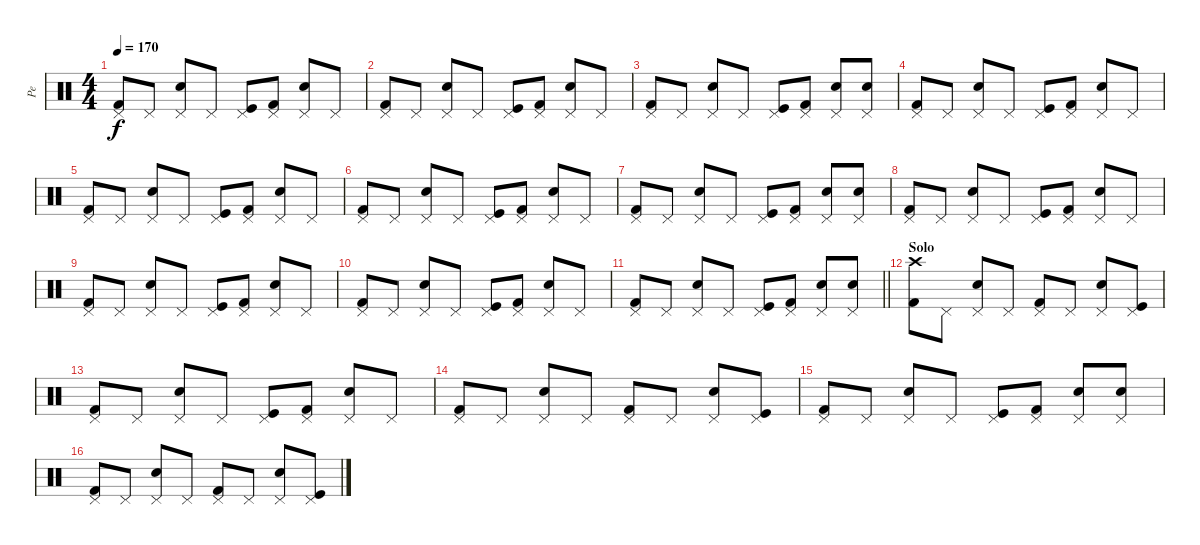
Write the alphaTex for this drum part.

\track ("Pe" "Pe") {instrument percussion}
\staff {score}
\articulation defaults
\ts (4 4)
\tempo 170
\clef neutral
\ks c
("Kick (hit) 2" "Pedal Hi-Hat (hit)").8{dy f} "Pedal Hi-Hat (hit)".8 ("Electric Snare (hit)" "Pedal Hi-Hat (hit)").8 "Pedal Hi-Hat (hit)".8 ("Kick (hit)" "Pedal Hi-Hat (hit)").8 ("Kick (hit) 2" "Pedal Hi-Hat (hit)").8 ("Electric Snare (hit)" "Pedal Hi-Hat (hit)").8 "Pedal Hi-Hat (hit)".8 |
("Kick (hit) 2" "Pedal Hi-Hat (hit)").8 "Pedal Hi-Hat (hit)".8 ("Electric Snare (hit)" "Pedal Hi-Hat (hit)").8 "Pedal Hi-Hat (hit)".8 ("Kick (hit)" "Pedal Hi-Hat (hit)").8 ("Kick (hit) 2" "Pedal Hi-Hat (hit)").8 ("Electric Snare (hit)" "Pedal Hi-Hat (hit)").8 "Pedal Hi-Hat (hit)".8 |
("Kick (hit) 2" "Pedal Hi-Hat (hit)").8 "Pedal Hi-Hat (hit)".8 ("Electric Snare (hit)" "Pedal Hi-Hat (hit)").8 "Pedal Hi-Hat (hit)".8 ("Kick (hit)" "Pedal Hi-Hat (hit)").8 ("Kick (hit) 2" "Pedal Hi-Hat (hit)").8 ("Electric Snare (hit)" "Pedal Hi-Hat (hit)").8 ("Electric Snare (hit)" "Pedal Hi-Hat (hit)").8 |
("Kick (hit) 2" "Pedal Hi-Hat (hit)").8 "Pedal Hi-Hat (hit)".8 ("Electric Snare (hit)" "Pedal Hi-Hat (hit)").8 "Pedal Hi-Hat (hit)".8 ("Kick (hit)" "Pedal Hi-Hat (hit)").8 ("Kick (hit) 2" "Pedal Hi-Hat (hit)").8 ("Electric Snare (hit)" "Pedal Hi-Hat (hit)").8 "Pedal Hi-Hat (hit)".8 |
("Kick (hit) 2" "Pedal Hi-Hat (hit)").8 "Pedal Hi-Hat (hit)".8 ("Electric Snare (hit)" "Pedal Hi-Hat (hit)").8 "Pedal Hi-Hat (hit)".8 ("Kick (hit)" "Pedal Hi-Hat (hit)").8 ("Kick (hit) 2" "Pedal Hi-Hat (hit)").8 ("Electric Snare (hit)" "Pedal Hi-Hat (hit)").8 "Pedal Hi-Hat (hit)".8 |
("Kick (hit) 2" "Pedal Hi-Hat (hit)").8 "Pedal Hi-Hat (hit)".8 ("Electric Snare (hit)" "Pedal Hi-Hat (hit)").8 "Pedal Hi-Hat (hit)".8 ("Kick (hit)" "Pedal Hi-Hat (hit)").8 ("Kick (hit) 2" "Pedal Hi-Hat (hit)").8 ("Electric Snare (hit)" "Pedal Hi-Hat (hit)").8 "Pedal Hi-Hat (hit)".8 |
("Kick (hit) 2" "Pedal Hi-Hat (hit)").8 "Pedal Hi-Hat (hit)".8 ("Electric Snare (hit)" "Pedal Hi-Hat (hit)").8 "Pedal Hi-Hat (hit)".8 ("Kick (hit)" "Pedal Hi-Hat (hit)").8 ("Kick (hit) 2" "Pedal Hi-Hat (hit)").8 ("Electric Snare (hit)" "Pedal Hi-Hat (hit)").8 ("Electric Snare (hit)" "Pedal Hi-Hat (hit)").8 |
("Kick (hit) 2" "Pedal Hi-Hat (hit)").8 "Pedal Hi-Hat (hit)".8 ("Electric Snare (hit)" "Pedal Hi-Hat (hit)").8 "Pedal Hi-Hat (hit)".8 ("Kick (hit)" "Pedal Hi-Hat (hit)").8 ("Kick (hit) 2" "Pedal Hi-Hat (hit)").8 ("Electric Snare (hit)" "Pedal Hi-Hat (hit)").8 "Pedal Hi-Hat (hit)".8 |
("Kick (hit) 2" "Pedal Hi-Hat (hit)").8 "Pedal Hi-Hat (hit)".8 ("Electric Snare (hit)" "Pedal Hi-Hat (hit)").8 "Pedal Hi-Hat (hit)".8 ("Kick (hit)" "Pedal Hi-Hat (hit)").8 ("Kick (hit) 2" "Pedal Hi-Hat (hit)").8 ("Electric Snare (hit)" "Pedal Hi-Hat (hit)").8 "Pedal Hi-Hat (hit)".8 |
("Kick (hit) 2" "Pedal Hi-Hat (hit)").8 "Pedal Hi-Hat (hit)".8 ("Electric Snare (hit)" "Pedal Hi-Hat (hit)").8 "Pedal Hi-Hat (hit)".8 ("Kick (hit)" "Pedal Hi-Hat (hit)").8 ("Kick (hit) 2" "Pedal Hi-Hat (hit)").8 ("Electric Snare (hit)" "Pedal Hi-Hat (hit)").8 "Pedal Hi-Hat (hit)".8 |
\barLineRight lightlight
("Kick (hit) 2" "Pedal Hi-Hat (hit)").8 "Pedal Hi-Hat (hit)".8 ("Electric Snare (hit)" "Pedal Hi-Hat (hit)").8 "Pedal Hi-Hat (hit)".8 ("Kick (hit)" "Pedal Hi-Hat (hit)").8 ("Kick (hit) 2" "Pedal Hi-Hat (hit)").8 ("Electric Snare (hit)" "Pedal Hi-Hat (hit)").8 ("Electric Snare (hit)" "Pedal Hi-Hat (hit)").8 |
\section ("" "Solo")
("Kick (hit) 2" "Crash high (hit)").8 "Pedal Hi-Hat (hit)".8 ("Electric Snare (hit)" "Pedal Hi-Hat (hit)").8 "Pedal Hi-Hat (hit)".8 ("Kick (hit) 2" "Pedal Hi-Hat (hit)").8 "Pedal Hi-Hat (hit)".8 ("Electric Snare (hit)" "Pedal Hi-Hat (hit)").8 ("Kick (hit)" "Pedal Hi-Hat (hit)").8 |
("Kick (hit) 2" "Pedal Hi-Hat (hit)").8 "Pedal Hi-Hat (hit)".8 ("Electric Snare (hit)" "Pedal Hi-Hat (hit)").8 "Pedal Hi-Hat (hit)".8 ("Kick (hit)" "Pedal Hi-Hat (hit)").8 ("Kick (hit) 2" "Pedal Hi-Hat (hit)").8 ("Electric Snare (hit)" "Pedal Hi-Hat (hit)").8 "Pedal Hi-Hat (hit)".8 |
("Kick (hit) 2" "Pedal Hi-Hat (hit)").8 "Pedal Hi-Hat (hit)".8 ("Electric Snare (hit)" "Pedal Hi-Hat (hit)").8 "Pedal Hi-Hat (hit)".8 ("Kick (hit) 2" "Pedal Hi-Hat (hit)").8 "Pedal Hi-Hat (hit)".8 ("Electric Snare (hit)" "Pedal Hi-Hat (hit)").8 ("Kick (hit)" "Pedal Hi-Hat (hit)").8 |
("Kick (hit) 2" "Pedal Hi-Hat (hit)").8 "Pedal Hi-Hat (hit)".8 ("Electric Snare (hit)" "Pedal Hi-Hat (hit)").8 "Pedal Hi-Hat (hit)".8 ("Kick (hit)" "Pedal Hi-Hat (hit)").8 ("Kick (hit) 2" "Pedal Hi-Hat (hit)").8 ("Electric Snare (hit)" "Pedal Hi-Hat (hit)").8 ("Electric Snare (hit)" "Pedal Hi-Hat (hit)").8 |
("Kick (hit) 2" "Pedal Hi-Hat (hit)").8 "Pedal Hi-Hat (hit)".8 ("Electric Snare (hit)" "Pedal Hi-Hat (hit)").8 "Pedal Hi-Hat (hit)".8 ("Kick (hit) 2" "Pedal Hi-Hat (hit)").8 "Pedal Hi-Hat (hit)".8 ("Electric Snare (hit)" "Pedal Hi-Hat (hit)").8 ("Kick (hit)" "Pedal Hi-Hat (hit)").8
